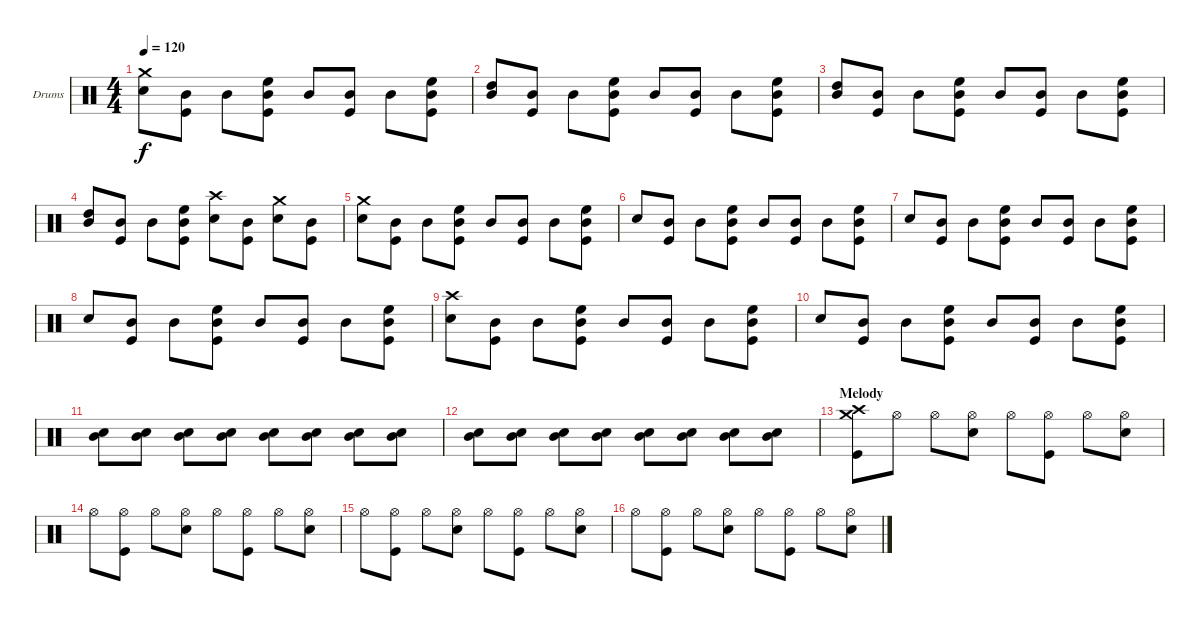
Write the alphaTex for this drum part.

\bracketExtendMode groupsimilarinstruments
\firstSystemTrackNameOrientation horizontal
\otherSystemsTrackNameOrientation horizontal
\track ("Drumkit" "Drums") {instrument percussion}
\staff {score}
\articulation defaults
\ts (4 4)
\tempo 120
\clef neutral
\ks c
("Crash medium (hit)" "Snare (hit) 2").8{dy f} ("Mid Tom (hit)" "Kick (hit)").8 "Mid Tom (hit)".8 ("High Floor Tom (hit)" "Mid Tom (hit)" "Kick (hit)").8 "Mid Tom (hit)".8 ("Mid Tom (hit)" "Kick (hit)").8 "Mid Tom (hit)".8 ("High Floor Tom (hit)" "Mid Tom (hit)" "Kick (hit)").8 |
("High Tom (hit)" "Mid Tom (hit)").8 ("Mid Tom (hit)" "Kick (hit)").8 "Mid Tom (hit)".8 ("High Floor Tom (hit)" "Mid Tom (hit)" "Kick (hit)").8 "Mid Tom (hit)".8 ("Mid Tom (hit)" "Kick (hit)").8 "Mid Tom (hit)".8 ("High Floor Tom (hit)" "Mid Tom (hit)" "Kick (hit)").8 |
("High Tom (hit)" "Mid Tom (hit)").8 ("Mid Tom (hit)" "Kick (hit)").8 "Mid Tom (hit)".8 ("High Floor Tom (hit)" "Mid Tom (hit)" "Kick (hit)").8 "Mid Tom (hit)".8 ("Mid Tom (hit)" "Kick (hit)").8 "Mid Tom (hit)".8 ("High Floor Tom (hit)" "Mid Tom (hit)" "Kick (hit)").8 |
("High Tom (hit)" "Mid Tom (hit)").8 ("Mid Tom (hit)" "Kick (hit)").8 "Mid Tom (hit)".8 ("High Floor Tom (hit)" "Mid Tom (hit)" "Kick (hit)").8 ("Crash high (hit)" "Snare (hit) 2").8 ("Mid Tom (hit)" "Kick (hit)").8 ("Crash medium (hit)" "Snare (hit) 2").8 ("Mid Tom (hit)" "Kick (hit)").8 |
("Crash medium (hit)" "Snare (hit) 2").8 ("Mid Tom (hit)" "Kick (hit)").8 "Mid Tom (hit)".8 ("High Floor Tom (hit)" "Mid Tom (hit)" "Kick (hit)").8 "Mid Tom (hit)".8 ("Mid Tom (hit)" "Kick (hit)").8 "Mid Tom (hit)".8 ("High Floor Tom (hit)" "Mid Tom (hit)" "Kick (hit)").8 |
"Snare (hit) 2".8 ("Mid Tom (hit)" "Kick (hit)").8 "Mid Tom (hit)".8 ("High Floor Tom (hit)" "Mid Tom (hit)" "Kick (hit)").8 "Mid Tom (hit)".8 ("Mid Tom (hit)" "Kick (hit)").8 "Mid Tom (hit)".8 ("High Floor Tom (hit)" "Mid Tom (hit)" "Kick (hit)").8 |
"Snare (hit) 2".8 ("Mid Tom (hit)" "Kick (hit)").8 "Mid Tom (hit)".8 ("High Floor Tom (hit)" "Mid Tom (hit)" "Kick (hit)").8 "Mid Tom (hit)".8 ("Mid Tom (hit)" "Kick (hit)").8 "Mid Tom (hit)".8 ("High Floor Tom (hit)" "Mid Tom (hit)" "Kick (hit)").8 |
"Snare (hit) 2".8 ("Mid Tom (hit)" "Kick (hit)").8 "Mid Tom (hit)".8 ("High Floor Tom (hit)" "Mid Tom (hit)" "Kick (hit)").8 "Mid Tom (hit)".8 ("Mid Tom (hit)" "Kick (hit)").8 "Mid Tom (hit)".8 ("High Floor Tom (hit)" "Mid Tom (hit)" "Kick (hit)").8 |
("Crash high (hit)" "Snare (hit) 2").8 ("Mid Tom (hit)" "Kick (hit)").8 "Mid Tom (hit)".8 ("High Floor Tom (hit)" "Mid Tom (hit)" "Kick (hit)").8 "Mid Tom (hit)".8 ("Mid Tom (hit)" "Kick (hit)").8 "Mid Tom (hit)".8 ("High Floor Tom (hit)" "Mid Tom (hit)" "Kick (hit)").8 |
"Snare (hit) 2".8 ("Mid Tom (hit)" "Kick (hit)").8 "Mid Tom (hit)".8 ("High Floor Tom (hit)" "Mid Tom (hit)" "Kick (hit)").8 "Mid Tom (hit)".8 ("Mid Tom (hit)" "Kick (hit)").8 "Mid Tom (hit)".8 ("High Floor Tom (hit)" "Mid Tom (hit)" "Kick (hit)").8 |
("Mid Tom (hit)" "Snare (hit) 2").8 ("Mid Tom (hit)" "Snare (hit) 2").8 ("Mid Tom (hit)" "Snare (hit) 2").8 ("Mid Tom (hit)" "Snare (hit) 2").8 ("Mid Tom (hit)" "Snare (hit) 2").8 ("Mid Tom (hit)" "Snare (hit) 2").8 ("Mid Tom (hit)" "Snare (hit) 2").8 ("Mid Tom (hit)" "Snare (hit) 2").8 |
("Mid Tom (hit)" "Snare (hit) 2").8 ("Mid Tom (hit)" "Snare (hit) 2").8 ("Mid Tom (hit)" "Snare (hit) 2").8 ("Mid Tom (hit)" "Snare (hit) 2").8 ("Mid Tom (hit)" "Snare (hit) 2").8 ("Mid Tom (hit)" "Snare (hit) 2").8 ("Mid Tom (hit)" "Snare (hit) 2").8 ("Mid Tom (hit)" "Snare (hit) 2").8 |
\section ("" "Melody")
("Crash high (hit)" "Crash medium (hit)" "Kick (hit)").8 "Hi-Hat (open)".8 "Hi-Hat (open)".8 ("Hi-Hat (open)" "Snare (hit) 2").8 "Hi-Hat (open)".8 ("Hi-Hat (open)" "Kick (hit)").8 "Hi-Hat (open)".8 ("Hi-Hat (open)" "Snare (hit) 2").8 |
"Hi-Hat (open)".8 ("Hi-Hat (open)" "Kick (hit)").8 "Hi-Hat (open)".8 ("Hi-Hat (open)" "Snare (hit) 2").8 "Hi-Hat (open)".8 ("Hi-Hat (open)" "Kick (hit)").8 "Hi-Hat (open)".8 ("Hi-Hat (open)" "Snare (hit) 2").8 |
"Hi-Hat (open)".8 ("Hi-Hat (open)" "Kick (hit)").8 "Hi-Hat (open)".8 ("Hi-Hat (open)" "Snare (hit) 2").8 "Hi-Hat (open)".8 ("Hi-Hat (open)" "Kick (hit)").8 "Hi-Hat (open)".8 ("Hi-Hat (open)" "Snare (hit) 2").8 |
"Hi-Hat (open)".8 ("Hi-Hat (open)" "Kick (hit)").8 "Hi-Hat (open)".8 ("Hi-Hat (open)" "Snare (hit) 2").8 "Hi-Hat (open)".8 ("Hi-Hat (open)" "Kick (hit)").8 "Hi-Hat (open)".8 ("Hi-Hat (open)" "Snare (hit) 2").8
